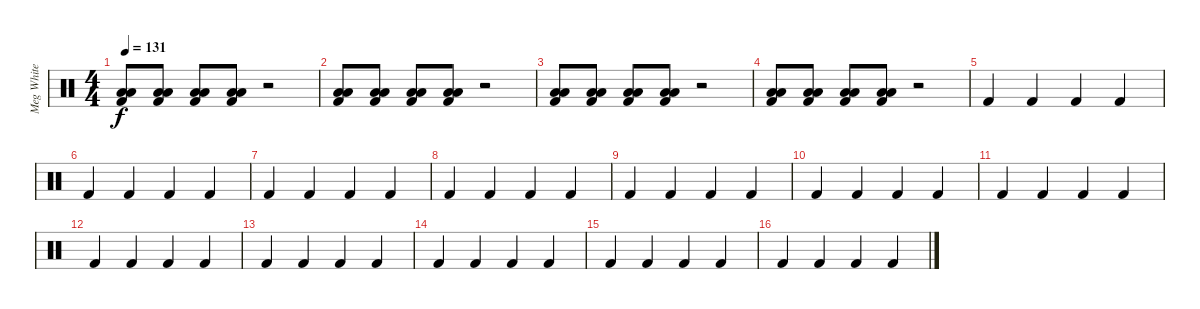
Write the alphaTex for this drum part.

\track ("Meg White - Drums" "Meg White ") {instrument percussion}
\staff {score}
\articulation defaults
\ts (4 4)
\tempo 131
\clef neutral
\ks c
("Low Floor Tom (hit)" "Low Floor Tom (hit)" "Kick (hit) 2").8{dy f} ("Low Floor Tom (hit)" "Low Floor Tom (hit)" "Kick (hit) 2").8 ("Low Floor Tom (hit)" "Low Floor Tom (hit)" "Kick (hit) 2").8 ("Low Floor Tom (hit)" "Low Floor Tom (hit)" "Kick (hit) 2").8 r.2 |
("Low Floor Tom (hit)" "Low Floor Tom (hit)" "Kick (hit) 2").8 ("Low Floor Tom (hit)" "Low Floor Tom (hit)" "Kick (hit) 2").8 ("Low Floor Tom (hit)" "Low Floor Tom (hit)" "Kick (hit) 2").8 ("Low Floor Tom (hit)" "Low Floor Tom (hit)" "Kick (hit) 2").8 r.2 |
("Low Floor Tom (hit)" "Low Floor Tom (hit)" "Kick (hit) 2").8 ("Low Floor Tom (hit)" "Low Floor Tom (hit)" "Kick (hit) 2").8 ("Low Floor Tom (hit)" "Low Floor Tom (hit)" "Kick (hit) 2").8 ("Low Floor Tom (hit)" "Low Floor Tom (hit)" "Kick (hit) 2").8 r.2 |
("Low Floor Tom (hit)" "Low Floor Tom (hit)" "Kick (hit) 2").8 ("Low Floor Tom (hit)" "Low Floor Tom (hit)" "Kick (hit) 2").8 ("Low Floor Tom (hit)" "Low Floor Tom (hit)" "Kick (hit) 2").8 ("Low Floor Tom (hit)" "Low Floor Tom (hit)" "Kick (hit) 2").8 r.2 |
"Kick (hit) 2".4 "Kick (hit) 2".4 "Kick (hit) 2".4 "Kick (hit) 2".4 |
"Kick (hit) 2".4 "Kick (hit) 2".4 "Kick (hit) 2".4 "Kick (hit) 2".4 |
"Kick (hit) 2".4 "Kick (hit) 2".4 "Kick (hit) 2".4 "Kick (hit) 2".4 |
"Kick (hit) 2".4 "Kick (hit) 2".4 "Kick (hit) 2".4 "Kick (hit) 2".4 |
"Kick (hit) 2".4 "Kick (hit) 2".4 "Kick (hit) 2".4 "Kick (hit) 2".4 |
"Kick (hit) 2".4 "Kick (hit) 2".4 "Kick (hit) 2".4 "Kick (hit) 2".4 |
"Kick (hit) 2".4 "Kick (hit) 2".4 "Kick (hit) 2".4 "Kick (hit) 2".4 |
"Kick (hit) 2".4 "Kick (hit) 2".4 "Kick (hit) 2".4 "Kick (hit) 2".4 |
"Kick (hit) 2".4 "Kick (hit) 2".4 "Kick (hit) 2".4 "Kick (hit) 2".4 |
"Kick (hit) 2".4 "Kick (hit) 2".4 "Kick (hit) 2".4 "Kick (hit) 2".4 |
"Kick (hit) 2".4 "Kick (hit) 2".4 "Kick (hit) 2".4 "Kick (hit) 2".4 |
"Kick (hit) 2".4 "Kick (hit) 2".4 "Kick (hit) 2".4 "Kick (hit) 2".4
